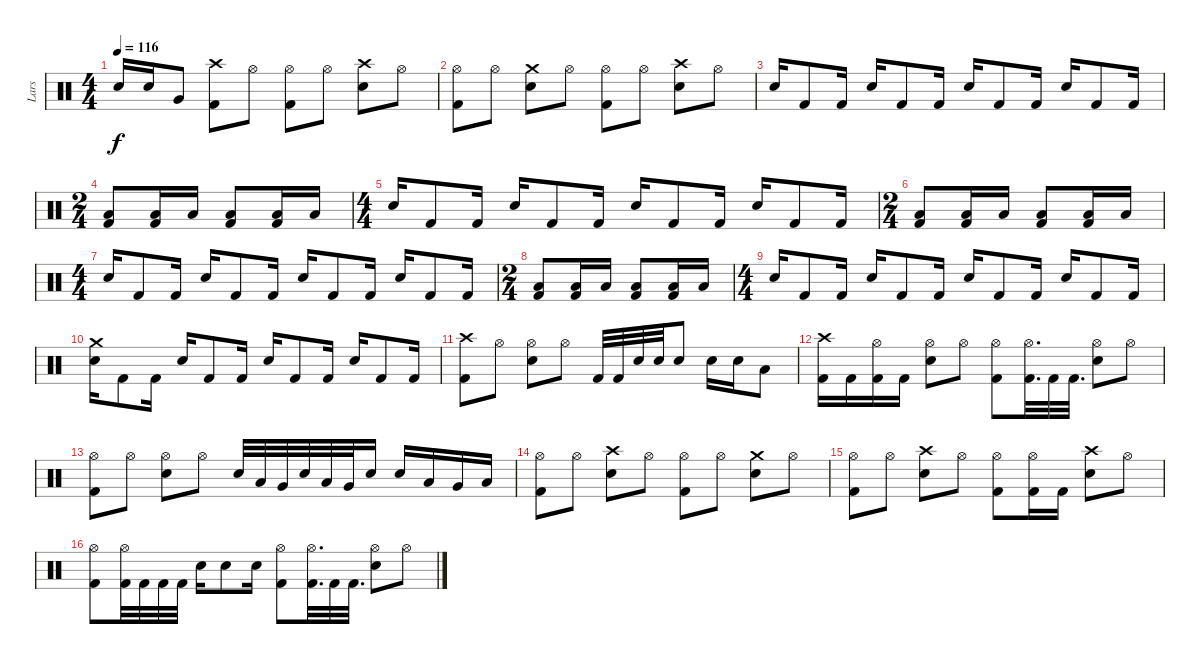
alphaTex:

\track ("Lars" "Lars") {instrument percussion}
\staff {score}
\articulation defaults
\ts (4 4)
\tempo 116
\clef neutral
\ks c "Snare (hit) 2".16{dy f} "Snare (hit) 2".16 "Very Low Tom (hit)".8
("Crash high (hit)" "Kick (hit) 2").8 "Hi-Hat (open)".8 ("Kick (hit) 2" "Hi-Hat (open)").8 "Hi-Hat (open)".8 ("Snare (hit) 2" "Crash high (hit)").8 "Hi-Hat (open)".8 |
("Hi-Hat (open)" "Kick (hit) 2").8 "Hi-Hat (open)".8 ("Snare (hit) 2" "Crash medium (hit)").8 "Hi-Hat (open)".8 ("Kick (hit) 2" "Hi-Hat (open)").8 "Hi-Hat (open)".8 ("Crash high (hit)" "Snare (hit) 2").8 "Hi-Hat (open)".8 |
"Snare (hit) 2".16 "Kick (hit) 2".8 "Kick (hit) 2".16 "Snare (hit) 2".16 "Kick (hit) 2".8 "Kick (hit) 2".16 "Snare (hit) 2".16 "Kick (hit) 2".8 "Kick (hit) 2".16 "Snare (hit) 2".16 "Kick (hit) 2".8 "Kick (hit) 2".16 |
\ts (2 4)
("Low Floor Tom (hit)" "Kick (hit) 2").8 ("Kick (hit) 2" "Low Floor Tom (hit)").16 "Low Floor Tom (hit)".16 ("Low Floor Tom (hit)" "Kick (hit) 2").8 ("Kick (hit) 2" "Low Floor Tom (hit)").16 "Low Floor Tom (hit)".16 |
\ts (4 4)
"Snare (hit) 2".16 "Kick (hit) 2".8 "Kick (hit) 2".16 "Snare (hit) 2".16 "Kick (hit) 2".8 "Kick (hit) 2".16 "Snare (hit) 2".16 "Kick (hit) 2".8 "Kick (hit) 2".16 "Snare (hit) 2".16 "Kick (hit) 2".8 "Kick (hit) 2".16 |
\ts (2 4)
("Low Floor Tom (hit)" "Kick (hit) 2").8 ("Kick (hit) 2" "Low Floor Tom (hit)").16 "Low Floor Tom (hit)".16 ("Low Floor Tom (hit)" "Kick (hit) 2").8 ("Kick (hit) 2" "Low Floor Tom (hit)").16 "Low Floor Tom (hit)".16 |
\ts (4 4)
"Snare (hit) 2".16 "Kick (hit) 2".8 "Kick (hit) 2".16 "Snare (hit) 2".16 "Kick (hit) 2".8 "Kick (hit) 2".16 "Snare (hit) 2".16 "Kick (hit) 2".8 "Kick (hit) 2".16 "Snare (hit) 2".16 "Kick (hit) 2".8 "Kick (hit) 2".16 |
\ts (2 4)
("Kick (hit) 2" "Low Floor Tom (hit)").8 ("Kick (hit) 2" "Low Floor Tom (hit)").16 "Low Floor Tom (hit)".16 ("Kick (hit) 2" "Low Floor Tom (hit)").8 ("Kick (hit) 2" "Low Floor Tom (hit)").16 "Low Floor Tom (hit)".16 |
\ts (4 4)
"Snare (hit) 2".16 "Kick (hit) 2".8 "Kick (hit) 2".16 "Snare (hit) 2".16 "Kick (hit) 2".8 "Kick (hit) 2".16 "Snare (hit) 2".16 "Kick (hit) 2".8 "Kick (hit) 2".16 "Snare (hit) 2".16 "Kick (hit) 2".8 "Kick (hit) 2".16 |
("Crash medium (hit)" "Snare (hit) 2").16 "Kick (hit) 2".8 "Kick (hit) 2".16 "Snare (hit) 2".16 "Kick (hit) 2".8 "Kick (hit) 2".16 "Snare (hit) 2".16 "Kick (hit) 2".8 "Kick (hit) 2".16 "Snare (hit) 2".16 "Kick (hit) 2".8 "Kick (hit) 2".16 |
("Crash high (hit)" "Kick (hit) 2").8 "Hi-Hat (open)".8 ("Snare (hit) 2" "Hi-Hat (open)").8 "Hi-Hat (open)".8 "Kick (hit) 2".32 "Kick (hit) 2".32 "Snare (hit) 2".32 "Snare (hit) 2".32 "Snare (hit) 2".8 "Snare (hit) 2".16 "Snare (hit) 2".16 "Low Tom (hit)".8 |
("Crash high (hit)" "Kick (hit) 2").16 "Kick (hit) 2".16 ("Kick (hit) 2" "Hi-Hat (open)").16 "Kick (hit) 2".16 ("Snare (hit) 2" "Hi-Hat (open)").8 "Hi-Hat (open)".8 ("Kick (hit) 2" "Hi-Hat (open)").8 ("Hi-Hat (open)" "Kick (hit) 2").32{d} "Kick (hit) 2".32 "Kick (hit) 2".32{d} ("Snare (hit) 2" "Hi-Hat (open)").8 "Hi-Hat (open)".8 |
("Hi-Hat (open)" "Kick (hit) 2").8 "Hi-Hat (open)".8 ("Snare (hit) 2" "Hi-Hat (open)").8 "Hi-Hat (open)".8 "Snare (hit) 2".32 "Low Tom (hit)".32 "Very Low Tom (hit)".32 "Snare (hit) 2".32 "Low Tom (hit)".32 "Very Low Tom (hit)".32 "Snare (hit) 2".16 "Snare (hit) 2".16 "Low Tom (hit)".16 "Very Low Tom (hit)".16 "Low Floor Tom (hit)".16 |
("Kick (hit) 2" "Hi-Hat (open)").8 "Hi-Hat (open)".8 ("Crash high (hit)" "Snare (hit) 2").8 "Hi-Hat (open)".8 ("Kick (hit) 2" "Hi-Hat (open)").8 "Hi-Hat (open)".8 ("Crash medium (hit)" "Snare (hit) 2").8 "Hi-Hat (open)".8 |
("Kick (hit) 2" "Hi-Hat (open)").8 "Hi-Hat (open)".8 ("Snare (hit) 2" "Crash high (hit)").8 "Hi-Hat (open)".8 ("Kick (hit) 2" "Hi-Hat (open)").8 ("Kick (hit) 2" "Hi-Hat (open)").16 "Kick (hit) 2".16 ("Crash high (hit)" "Snare (hit) 2").8 "Hi-Hat (open)".8 |
("Kick (hit) 2" "Hi-Hat (open)").8 ("Hi-Hat (open)" "Kick (hit) 2").32 "Kick (hit) 2".32 "Kick (hit) 2".32 "Kick (hit) 2".32 "Snare (hit) 2".16 "Snare (hit) 2".8 "Snare (hit) 2".16 ("Hi-Hat (open)" "Kick (hit) 2").8 ("Kick (hit) 2" "Hi-Hat (open)").32{d} "Kick (hit) 2".32 "Kick (hit) 2".32{d} ("Snare (hit) 2" "Hi-Hat (open)").8 "Hi-Hat (open)".8
